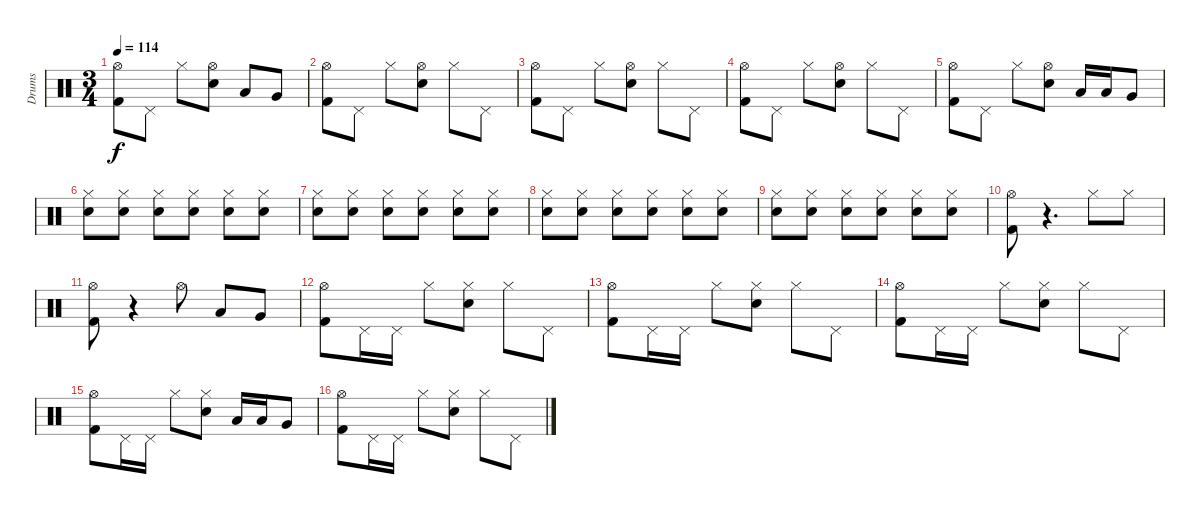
\track ("Drums" "Drums") {instrument percussion}
\staff {score}
\articulation defaults
\ts (3 4)
\tempo 114
\clef neutral
\ks c
("Hi-Hat (open)" "Kick (hit) 2").8{dy f} "Pedal Hi-Hat (hit)".8 "Hi-Hat (closed)".8 ("Hi-Hat (open)" "Electric Snare (hit)").8 "Low Tom (hit)".8 "Very Low Tom (hit)".8 |
("Hi-Hat (open)" "Kick (hit) 2").8 "Pedal Hi-Hat (hit)".8 "Hi-Hat (closed)".8 ("Hi-Hat (open)" "Electric Snare (hit)").8 "Hi-Hat (closed)".8 "Pedal Hi-Hat (hit)".8 |
("Hi-Hat (open)" "Kick (hit) 2").8 "Pedal Hi-Hat (hit)".8 "Hi-Hat (closed)".8 ("Hi-Hat (open)" "Electric Snare (hit)").8 "Hi-Hat (closed)".8 "Pedal Hi-Hat (hit)".8 |
("Hi-Hat (open)" "Kick (hit) 2").8 "Pedal Hi-Hat (hit)".8 "Hi-Hat (closed)".8 ("Hi-Hat (open)" "Electric Snare (hit)").8 "Hi-Hat (closed)".8 "Pedal Hi-Hat (hit)".8 |
("Hi-Hat (open)" "Kick (hit) 2").8 "Pedal Hi-Hat (hit)".8 "Hi-Hat (closed)".8 ("Hi-Hat (open)" "Electric Snare (hit)").8 "Low Tom (hit)".16 "Low Tom (hit)".16 "Very Low Tom (hit)".8 |
("Hi-Hat (closed)" "Electric Snare (hit)").8 ("Hi-Hat (closed)" "Electric Snare (hit)").8 ("Hi-Hat (closed)" "Electric Snare (hit)").8 ("Hi-Hat (closed)" "Electric Snare (hit)").8 ("Hi-Hat (closed)" "Electric Snare (hit)").8 ("Hi-Hat (closed)" "Electric Snare (hit)").8 |
("Hi-Hat (closed)" "Electric Snare (hit)").8 ("Hi-Hat (closed)" "Electric Snare (hit)").8 ("Hi-Hat (closed)" "Electric Snare (hit)").8 ("Hi-Hat (closed)" "Electric Snare (hit)").8 ("Hi-Hat (closed)" "Electric Snare (hit)").8 ("Hi-Hat (closed)" "Electric Snare (hit)").8 |
("Hi-Hat (closed)" "Electric Snare (hit)").8 ("Hi-Hat (closed)" "Electric Snare (hit)").8 ("Hi-Hat (closed)" "Electric Snare (hit)").8 ("Hi-Hat (closed)" "Electric Snare (hit)").8 ("Hi-Hat (closed)" "Electric Snare (hit)").8 ("Hi-Hat (closed)" "Electric Snare (hit)").8 |
("Hi-Hat (closed)" "Electric Snare (hit)").8 ("Hi-Hat (closed)" "Electric Snare (hit)").8 ("Hi-Hat (closed)" "Electric Snare (hit)").8 ("Hi-Hat (closed)" "Electric Snare (hit)").8 ("Hi-Hat (closed)" "Electric Snare (hit)").8 ("Hi-Hat (closed)" "Electric Snare (hit)").8 |
("Hi-Hat (open)" "Kick (hit) 2").8 r.4{d} "Hi-Hat (closed)".8 "Hi-Hat (closed)".8 |
("Hi-Hat (open)" "Kick (hit) 2").8 r.4 "Hi-Hat (open)".8 "Low Tom (hit)".8 "Very Low Tom (hit)".8 |
("Hi-Hat (open)" "Kick (hit) 2").8 "Pedal Hi-Hat (hit)".16 "Pedal Hi-Hat (hit)".16 "Hi-Hat (closed)".8 ("Hi-Hat (closed)" "Electric Snare (hit)").8 "Hi-Hat (closed)".8 "Pedal Hi-Hat (hit)".8 |
("Hi-Hat (open)" "Kick (hit) 2").8 "Pedal Hi-Hat (hit)".16 "Pedal Hi-Hat (hit)".16 "Hi-Hat (closed)".8 ("Hi-Hat (closed)" "Electric Snare (hit)").8 "Hi-Hat (closed)".8 "Pedal Hi-Hat (hit)".8 |
("Hi-Hat (open)" "Kick (hit) 2").8 "Pedal Hi-Hat (hit)".16 "Pedal Hi-Hat (hit)".16 "Hi-Hat (closed)".8 ("Hi-Hat (closed)" "Electric Snare (hit)").8 "Hi-Hat (closed)".8 "Pedal Hi-Hat (hit)".8 |
("Hi-Hat (open)" "Kick (hit) 2").8 "Pedal Hi-Hat (hit)".16 "Pedal Hi-Hat (hit)".16 "Hi-Hat (closed)".8 ("Hi-Hat (closed)" "Electric Snare (hit)").8 "Low Tom (hit)".16 "Low Tom (hit)".16 "Very Low Tom (hit)".8 |
("Hi-Hat (open)" "Kick (hit) 2").8 "Pedal Hi-Hat (hit)".16 "Pedal Hi-Hat (hit)".16 "Hi-Hat (closed)".8 ("Hi-Hat (closed)" "Electric Snare (hit)").8 "Hi-Hat (closed)".8 "Pedal Hi-Hat (hit)".8
